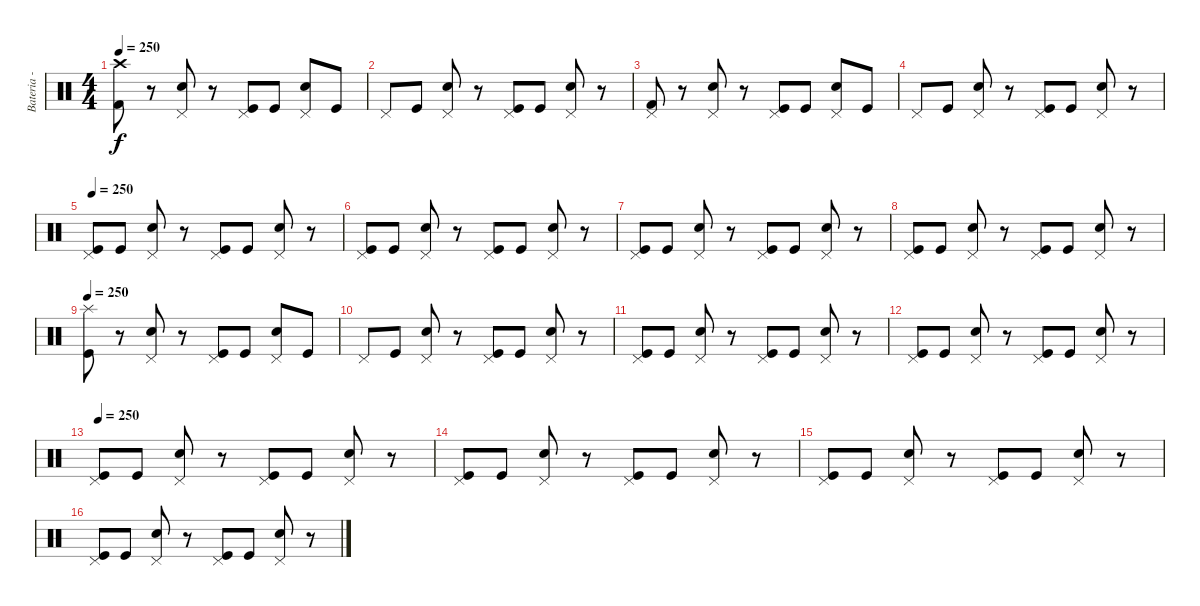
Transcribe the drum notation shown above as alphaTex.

\track ("Bateria - Japinha" "Bateria - ") {instrument percussion}
\staff {score}
\articulation defaults
\ts (4 4)
\tempo 250
\clef neutral
\ks c
("Kick (hit) 2" "Crash high (hit)").8{dy f} r.8 ("Snare (hit) 2" "Pedal Hi-Hat (hit)").8 r.8 ("Kick (hit)" "Pedal Hi-Hat (hit)").8 "Kick (hit)".8 ("Snare (hit) 2" "Pedal Hi-Hat (hit)").8 "Kick (hit)".8 |
"Pedal Hi-Hat (hit)".8 "Kick (hit)".8 ("Snare (hit) 2" "Pedal Hi-Hat (hit)").8 r.8 ("Kick (hit)" "Pedal Hi-Hat (hit)").8 "Kick (hit)".8 ("Snare (hit) 2" "Pedal Hi-Hat (hit)").8 r.8 |
("Kick (hit) 2" "Pedal Hi-Hat (hit)").8 r.8 ("Snare (hit) 2" "Pedal Hi-Hat (hit)").8 r.8 ("Kick (hit)" "Pedal Hi-Hat (hit)").8 "Kick (hit)".8 ("Snare (hit) 2" "Pedal Hi-Hat (hit)").8 "Kick (hit)".8 |
"Pedal Hi-Hat (hit)".8 "Kick (hit)".8 ("Snare (hit) 2" "Pedal Hi-Hat (hit)").8 r.8 ("Kick (hit)" "Pedal Hi-Hat (hit)").8 "Kick (hit)".8 ("Snare (hit) 2" "Pedal Hi-Hat (hit)").8 r.8 |
\tempo 250
("Kick (hit)" "Pedal Hi-Hat (hit)").8 "Kick (hit)".8 ("Snare (hit) 2" "Pedal Hi-Hat (hit)").8 r.8 ("Kick (hit)" "Pedal Hi-Hat (hit)").8 "Kick (hit)".8 ("Snare (hit) 2" "Pedal Hi-Hat (hit)").8 r.8 |
("Kick (hit)" "Pedal Hi-Hat (hit)").8 "Kick (hit)".8 ("Snare (hit) 2" "Pedal Hi-Hat (hit)").8 r.8 ("Kick (hit)" "Pedal Hi-Hat (hit)").8 "Kick (hit)".8 ("Snare (hit) 2" "Pedal Hi-Hat (hit)").8 r.8 |
("Kick (hit)" "Pedal Hi-Hat (hit)").8 "Kick (hit)".8 ("Snare (hit) 2" "Pedal Hi-Hat (hit)").8 r.8 ("Kick (hit)" "Pedal Hi-Hat (hit)").8 "Kick (hit)".8 ("Snare (hit) 2" "Pedal Hi-Hat (hit)").8 r.8 |
("Kick (hit)" "Pedal Hi-Hat (hit)").8 "Kick (hit)".8 ("Snare (hit) 2" "Pedal Hi-Hat (hit)").8 r.8 ("Kick (hit)" "Pedal Hi-Hat (hit)").8 "Kick (hit)".8 ("Snare (hit) 2" "Pedal Hi-Hat (hit)").8 r.8 |
\tempo 250
("Kick (hit)" "Splash (hit)").8 r.8 ("Snare (hit) 2" "Pedal Hi-Hat (hit)").8 r.8 ("Kick (hit)" "Pedal Hi-Hat (hit)").8 "Kick (hit)".8 ("Snare (hit) 2" "Pedal Hi-Hat (hit)").8 "Kick (hit)".8 |
"Pedal Hi-Hat (hit)".8 "Kick (hit)".8 ("Snare (hit) 2" "Pedal Hi-Hat (hit)").8 r.8 ("Kick (hit)" "Pedal Hi-Hat (hit)").8 "Kick (hit)".8 ("Snare (hit) 2" "Pedal Hi-Hat (hit)").8 r.8 |
("Kick (hit)" "Pedal Hi-Hat (hit)").8 "Kick (hit)".8 ("Snare (hit) 2" "Pedal Hi-Hat (hit)").8 r.8 ("Kick (hit)" "Pedal Hi-Hat (hit)").8 "Kick (hit)".8 ("Snare (hit) 2" "Pedal Hi-Hat (hit)").8 r.8 |
("Kick (hit)" "Pedal Hi-Hat (hit)").8 "Kick (hit)".8 ("Snare (hit) 2" "Pedal Hi-Hat (hit)").8 r.8 ("Kick (hit)" "Pedal Hi-Hat (hit)").8 "Kick (hit)".8 ("Snare (hit) 2" "Pedal Hi-Hat (hit)").8 r.8 |
\tempo 250
("Kick (hit)" "Pedal Hi-Hat (hit)").8 "Kick (hit)".8 ("Snare (hit) 2" "Pedal Hi-Hat (hit)").8 r.8 ("Kick (hit)" "Pedal Hi-Hat (hit)").8 "Kick (hit)".8 ("Snare (hit) 2" "Pedal Hi-Hat (hit)").8 r.8 |
("Kick (hit)" "Pedal Hi-Hat (hit)").8 "Kick (hit)".8 ("Snare (hit) 2" "Pedal Hi-Hat (hit)").8 r.8 ("Kick (hit)" "Pedal Hi-Hat (hit)").8 "Kick (hit)".8 ("Snare (hit) 2" "Pedal Hi-Hat (hit)").8 r.8 |
("Kick (hit)" "Pedal Hi-Hat (hit)").8 "Kick (hit)".8 ("Snare (hit) 2" "Pedal Hi-Hat (hit)").8 r.8 ("Kick (hit)" "Pedal Hi-Hat (hit)").8 "Kick (hit)".8 ("Snare (hit) 2" "Pedal Hi-Hat (hit)").8 r.8 |
("Kick (hit)" "Pedal Hi-Hat (hit)").8 "Kick (hit)".8 ("Snare (hit) 2" "Pedal Hi-Hat (hit)").8 r.8 ("Kick (hit)" "Pedal Hi-Hat (hit)").8 "Kick (hit)".8 ("Snare (hit) 2" "Pedal Hi-Hat (hit)").8 r.8
